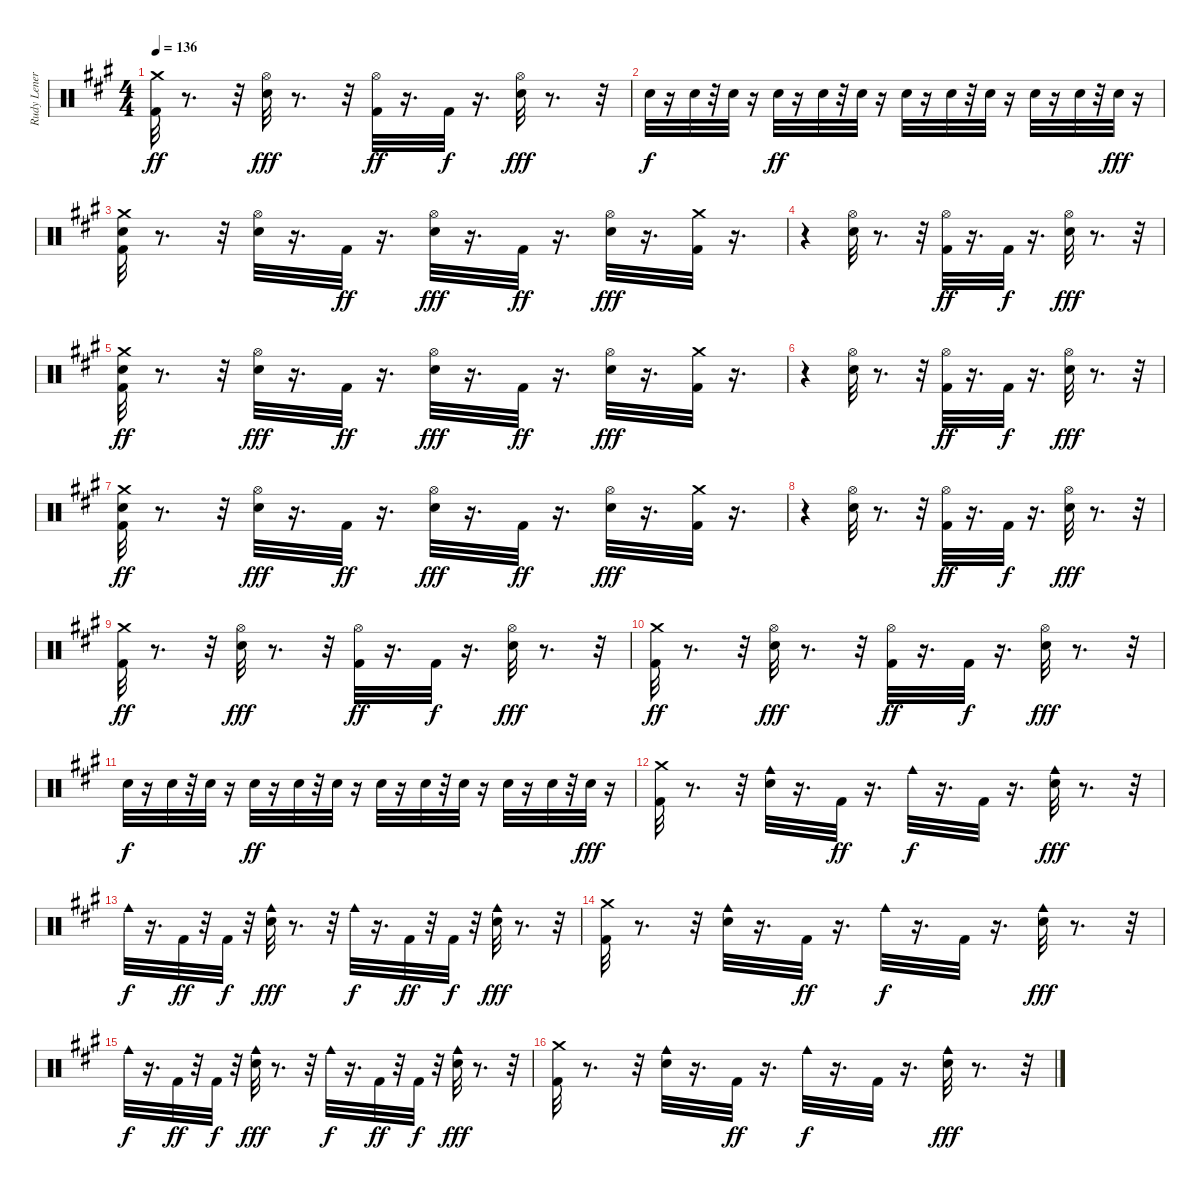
\track ("Rudy Leners" "Rudy Lener") {instrument percussion}
\staff {score}
\articulation defaults
\ts (4 4)
\tempo 136
\clef neutral
\ks a
("Crash medium (hit)" "Kick (hit) 2").32{dy ff} r.8{d} r.32 ("Hi-Hat (open)" "Snare (hit) 2").32{dy fff} r.8{d} r.32 ("Hi-Hat (open)" "Kick (hit) 2").32{dy ff} r.16{d} "Kick (hit) 2".32{dy f} r.16{d} ("Hi-Hat (open)" "Snare (hit) 2").32{dy fff} r.8{d} r.32 |
"Snare (hit) 2".32{dy f} r.16 "Snare (hit) 2".32 r.32 "Snare (hit) 2".32 r.16 "Snare (hit) 2".32{dy ff} r.16 "Snare (hit) 2".32 r.32 "Snare (hit) 2".32 r.16 "Snare (hit) 2".32 r.16 "Snare (hit) 2".32 r.32 "Snare (hit) 2".32 r.16 "Snare (hit) 2".32 r.16 "Snare (hit) 2".32 r.32 "Snare (hit) 2".32{dy fff} r.16 |
("Snare (hit) 2" "Crash medium (hit)" "Kick (hit) 2").32 r.8{d} r.32 ("Hi-Hat (open)" "Snare (hit) 2").32 r.16{d} "Kick (hit) 2".32{dy ff} r.16{d} ("Hi-Hat (open)" "Snare (hit) 2").32{dy fff} r.16{d} "Kick (hit) 2".32{dy ff} r.16{d} ("Hi-Hat (open)" "Snare (hit) 2").32{dy fff} r.16{d} ("Kick (hit) 2" "Crash medium (hit)").32 r.16{d} |
r.4 ("Hi-Hat (open)" "Snare (hit) 2").32 r.8{d} r.32 ("Hi-Hat (open)" "Kick (hit) 2").32{dy ff} r.16{d} "Kick (hit) 2".32{dy f} r.16{d} ("Hi-Hat (open)" "Snare (hit) 2").32{dy fff} r.8{d} r.32 |
("Snare (hit) 2" "Crash medium (hit)" "Kick (hit) 2").32{dy ff} r.8{d} r.32 ("Hi-Hat (open)" "Snare (hit) 2").32{dy fff} r.16{d} "Kick (hit) 2".32{dy ff} r.16{d} ("Hi-Hat (open)" "Snare (hit) 2").32{dy fff} r.16{d} "Kick (hit) 2".32{dy ff} r.16{d} ("Hi-Hat (open)" "Snare (hit) 2").32{dy fff} r.16{d} ("Kick (hit) 2" "Crash medium (hit)").32 r.16{d} |
r.4 ("Hi-Hat (open)" "Snare (hit) 2").32 r.8{d} r.32 ("Hi-Hat (open)" "Kick (hit) 2").32{dy ff} r.16{d} "Kick (hit) 2".32{dy f} r.16{d} ("Hi-Hat (open)" "Snare (hit) 2").32{dy fff} r.8{d} r.32 |
("Snare (hit) 2" "Crash medium (hit)" "Kick (hit) 2").32{dy ff} r.8{d} r.32 ("Hi-Hat (open)" "Snare (hit) 2").32{dy fff} r.16{d} "Kick (hit) 2".32{dy ff} r.16{d} ("Hi-Hat (open)" "Snare (hit) 2").32{dy fff} r.16{d} "Kick (hit) 2".32{dy ff} r.16{d} ("Hi-Hat (open)" "Snare (hit) 2").32{dy fff} r.16{d} ("Kick (hit) 2" "Crash medium (hit)").32 r.16{d} |
r.4 ("Hi-Hat (open)" "Snare (hit) 2").32 r.8{d} r.32 ("Hi-Hat (open)" "Kick (hit) 2").32{dy ff} r.16{d} "Kick (hit) 2".32{dy f} r.16{d} ("Hi-Hat (open)" "Snare (hit) 2").32{dy fff} r.8{d} r.32 |
("Crash medium (hit)" "Kick (hit) 2").32{dy ff} r.8{d} r.32 ("Hi-Hat (open)" "Snare (hit) 2").32{dy fff} r.8{d} r.32 ("Hi-Hat (open)" "Kick (hit) 2").32{dy ff} r.16{d} "Kick (hit) 2".32{dy f} r.16{d} ("Hi-Hat (open)" "Snare (hit) 2").32{dy fff} r.8{d} r.32 |
("Crash medium (hit)" "Kick (hit) 2").32{dy ff} r.8{d} r.32 ("Hi-Hat (open)" "Snare (hit) 2").32{dy fff} r.8{d} r.32 ("Hi-Hat (open)" "Kick (hit) 2").32{dy ff} r.16{d} "Kick (hit) 2".32{dy f} r.16{d} ("Hi-Hat (open)" "Snare (hit) 2").32{dy fff} r.8{d} r.32 |
"Snare (hit) 2".32{dy f} r.16 "Snare (hit) 2".32 r.32 "Snare (hit) 2".32 r.16 "Snare (hit) 2".32{dy ff} r.16 "Snare (hit) 2".32 r.32 "Snare (hit) 2".32 r.16 "Snare (hit) 2".32 r.16 "Snare (hit) 2".32 r.32 "Snare (hit) 2".32 r.16 "Snare (hit) 2".32 r.16 "Snare (hit) 2".32 r.32 "Snare (hit) 2".32{dy fff} r.16 |
("Kick (hit) 2" "Crash medium (hit)").32 r.8{d} r.32 ("Cowbell medium (hit)" "Snare (hit) 2").32 r.16{d} "Kick (hit) 2".32{dy ff} r.16{d} "Cowbell medium (hit)".32{dy f} r.16{d} "Kick (hit) 2".32 r.16{d} ("Cowbell medium (hit)" "Snare (hit) 2").32{dy fff} r.8{d} r.32 |
"Cowbell medium (hit)".32{dy f} r.16{d} "Kick (hit) 2".32{dy ff} r.32 "Kick (hit) 2".32{dy f} r.32 ("Cowbell medium (hit)" "Snare (hit) 2").32{dy fff} r.8{d} r.32 "Cowbell medium (hit)".32{dy f} r.16{d} "Kick (hit) 2".32{dy ff} r.32 "Kick (hit) 2".32{dy f} r.32 ("Cowbell medium (hit)" "Snare (hit) 2").32{dy fff} r.8{d} r.32 |
("Kick (hit) 2" "Crash medium (hit)").32 r.8{d} r.32 ("Cowbell medium (hit)" "Snare (hit) 2").32 r.16{d} "Kick (hit) 2".32{dy ff} r.16{d} "Cowbell medium (hit)".32{dy f} r.16{d} "Kick (hit) 2".32 r.16{d} ("Cowbell medium (hit)" "Snare (hit) 2").32{dy fff} r.8{d} r.32 |
"Cowbell medium (hit)".32{dy f} r.16{d} "Kick (hit) 2".32{dy ff} r.32 "Kick (hit) 2".32{dy f} r.32 ("Cowbell medium (hit)" "Snare (hit) 2").32{dy fff} r.8{d} r.32 "Cowbell medium (hit)".32{dy f} r.16{d} "Kick (hit) 2".32{dy ff} r.32 "Kick (hit) 2".32{dy f} r.32 ("Cowbell medium (hit)" "Snare (hit) 2").32{dy fff} r.8{d} r.32 |
("Kick (hit) 2" "Crash medium (hit)").32 r.8{d} r.32 ("Cowbell medium (hit)" "Snare (hit) 2").32 r.16{d} "Kick (hit) 2".32{dy ff} r.16{d} "Cowbell medium (hit)".32{dy f} r.16{d} "Kick (hit) 2".32 r.16{d} ("Cowbell medium (hit)" "Snare (hit) 2").32{dy fff} r.8{d} r.32
